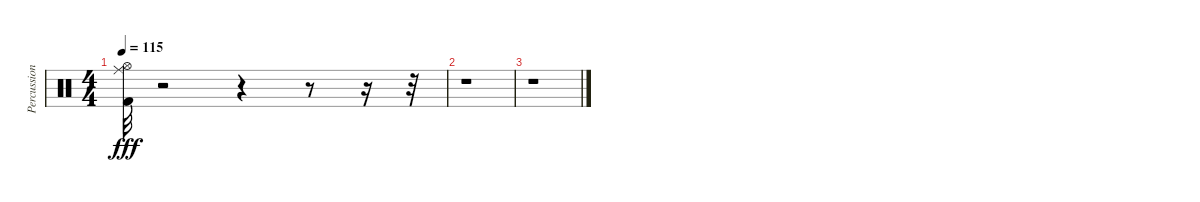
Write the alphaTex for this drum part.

\track ("Percussion" "Percussion") {instrument percussion}
\staff {score}
\articulation defaults
\ts (4 4)
\tempo 115
\clef neutral
\ks c
("Kick (hit) 2" "Hi-Hat (open)" "Ride (middle)").32{dy fff} r.2 r.4 r.8 r.16 r.32 |
r.1 |
r.1
